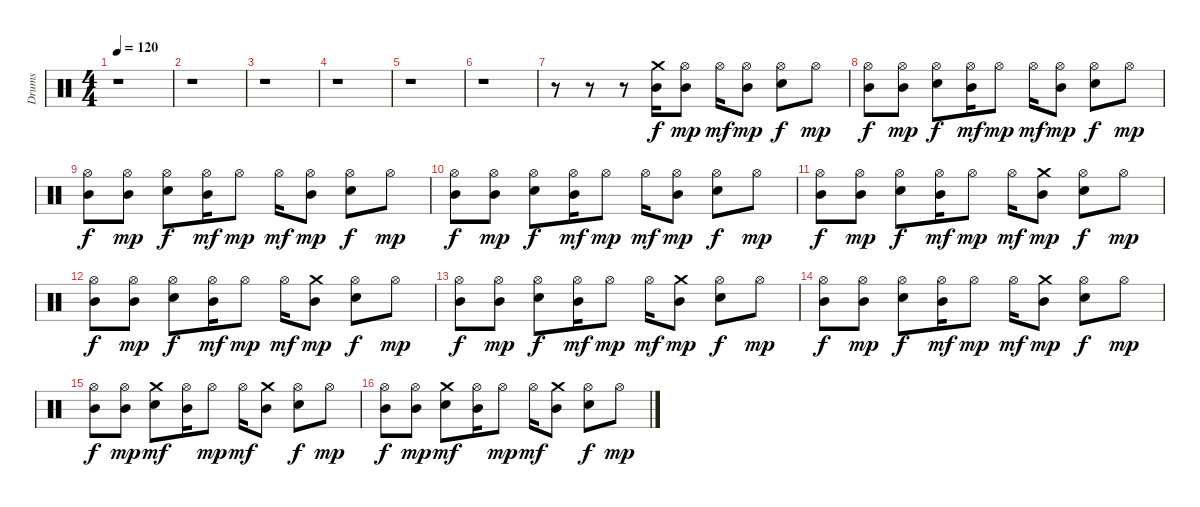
\track ("Drums" "Drums") {instrument percussion}
\staff {score}
\articulation defaults
\ts (4 4)
\tempo 120
\clef neutral
\ks c
r.1{dy f} |
r.1 |
r.1 |
r.1 |
r.1 |
r.1 |
r.8 r.8 r.8 ("Crash medium (hit)" "Mid Tom (hit)").16 ("Hi-Hat (open)" "Mid Tom (hit)").8{dy mp} "Hi-Hat (open)".16{dy mf} ("Hi-Hat (open)" "Mid Tom (hit)").8{dy mp} ("Hi-Hat (open)" "Electric Snare (hit)").8{dy f} "Hi-Hat (open)".8{dy mp} |
("Hi-Hat (open)" "Mid Tom (hit)").8{dy f} ("Hi-Hat (open)" "Mid Tom (hit)").8{dy mp} ("Hi-Hat (open)" "Electric Snare (hit)").8{dy f} ("Hi-Hat (open)" "Mid Tom (hit)").16{dy mf} "Hi-Hat (open)".8{dy mp} "Hi-Hat (open)".16{dy mf} ("Hi-Hat (open)" "Mid Tom (hit)").8{dy mp} ("Hi-Hat (open)" "Electric Snare (hit)").8{dy f} "Hi-Hat (open)".8{dy mp} |
("Hi-Hat (open)" "Mid Tom (hit)").8{dy f} ("Hi-Hat (open)" "Mid Tom (hit)").8{dy mp} ("Hi-Hat (open)" "Electric Snare (hit)").8{dy f} ("Hi-Hat (open)" "Mid Tom (hit)").16{dy mf} "Hi-Hat (open)".8{dy mp} "Hi-Hat (open)".16{dy mf} ("Hi-Hat (open)" "Mid Tom (hit)").8{dy mp} ("Hi-Hat (open)" "Electric Snare (hit)").8{dy f} "Hi-Hat (open)".8{dy mp} |
("Hi-Hat (open)" "Mid Tom (hit)").8{dy f} ("Hi-Hat (open)" "Mid Tom (hit)").8{dy mp} ("Hi-Hat (open)" "Electric Snare (hit)").8{dy f} ("Hi-Hat (open)" "Mid Tom (hit)").16{dy mf} "Hi-Hat (open)".8{dy mp} "Hi-Hat (open)".16{dy mf} ("Hi-Hat (open)" "Mid Tom (hit)").8{dy mp} ("Hi-Hat (open)" "Electric Snare (hit)").8{dy f} "Hi-Hat (open)".8{dy mp} |
("Hi-Hat (open)" "Mid Tom (hit)").8{dy f} ("Hi-Hat (open)" "Mid Tom (hit)").8{dy mp} ("Hi-Hat (open)" "Electric Snare (hit)").8{dy f} ("Hi-Hat (open)" "Mid Tom (hit)").16{dy mf} "Hi-Hat (open)".8{dy mp} "Hi-Hat (open)".16{dy mf} ("Crash medium (hit)" "Mid Tom (hit)").8{dy mp} ("Hi-Hat (open)" "Electric Snare (hit)").8{dy f} "Hi-Hat (open)".8{dy mp} |
("Hi-Hat (open)" "Mid Tom (hit)").8{dy f} ("Hi-Hat (open)" "Mid Tom (hit)").8{dy mp} ("Hi-Hat (open)" "Electric Snare (hit)").8{dy f} ("Hi-Hat (open)" "Mid Tom (hit)").16{dy mf} "Hi-Hat (open)".8{dy mp} "Hi-Hat (open)".16{dy mf} ("Crash medium (hit)" "Mid Tom (hit)").8{dy mp} ("Hi-Hat (open)" "Electric Snare (hit)").8{dy f} "Hi-Hat (open)".8{dy mp} |
("Hi-Hat (open)" "Mid Tom (hit)").8{dy f} ("Hi-Hat (open)" "Mid Tom (hit)").8{dy mp} ("Hi-Hat (open)" "Electric Snare (hit)").8{dy f} ("Hi-Hat (open)" "Mid Tom (hit)").16{dy mf} "Hi-Hat (open)".8{dy mp} "Hi-Hat (open)".16{dy mf} ("Crash medium (hit)" "Mid Tom (hit)").8{dy mp} ("Hi-Hat (open)" "Electric Snare (hit)").8{dy f} "Hi-Hat (open)".8{dy mp} |
("Hi-Hat (open)" "Mid Tom (hit)").8{dy f} ("Hi-Hat (open)" "Mid Tom (hit)").8{dy mp} ("Hi-Hat (open)" "Electric Snare (hit)").8{dy f} ("Hi-Hat (open)" "Mid Tom (hit)").16{dy mf} "Hi-Hat (open)".8{dy mp} "Hi-Hat (open)".16{dy mf} ("Crash medium (hit)" "Mid Tom (hit)").8{dy mp} ("Hi-Hat (open)" "Electric Snare (hit)").8{dy f} "Hi-Hat (open)".8{dy mp} |
("Hi-Hat (open)" "Mid Tom (hit)").8{dy f} ("Hi-Hat (open)" "Mid Tom (hit)").8{dy mp} ("Crash medium (hit)" "Electric Snare (hit)").8{dy mf} ("Hi-Hat (open)" "Mid Tom (hit)").16 "Hi-Hat (open)".8{dy mp} "Hi-Hat (open)".16{dy mf} ("Crash medium (hit)" "Mid Tom (hit)").8 ("Hi-Hat (open)" "Electric Snare (hit)").8{dy f} "Hi-Hat (open)".8{dy mp} |
("Hi-Hat (open)" "Mid Tom (hit)").8{dy f} ("Hi-Hat (open)" "Mid Tom (hit)").8{dy mp} ("Crash medium (hit)" "Electric Snare (hit)").8{dy mf} ("Hi-Hat (open)" "Mid Tom (hit)").16 "Hi-Hat (open)".8{dy mp} "Hi-Hat (open)".16{dy mf} ("Crash medium (hit)" "Mid Tom (hit)").8 ("Hi-Hat (open)" "Electric Snare (hit)").8{dy f} "Hi-Hat (open)".8{dy mp}
